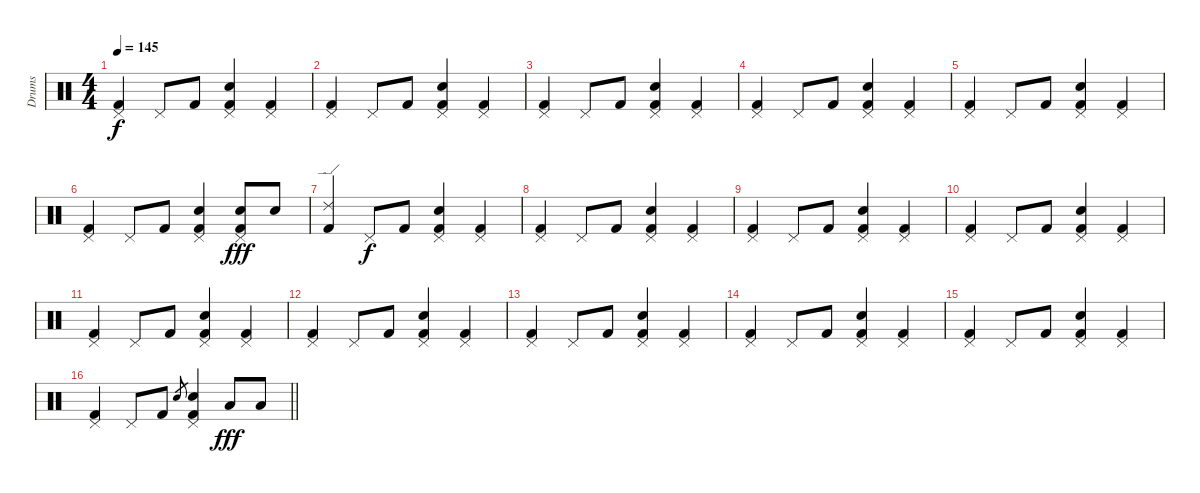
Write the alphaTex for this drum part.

\track ("Drums" "Drums") {instrument percussion}
\staff {score}
\articulation defaults
\ts (4 4)
\tempo 145
\clef neutral
\ks c
("Pedal Hi-Hat (hit)" "Kick (hit) 2").4{dy f} "Pedal Hi-Hat (hit)".8 "Kick (hit) 2".8 ("Pedal Hi-Hat (hit)" "Electric Snare (hit)" "Kick (hit) 2").4 ("Pedal Hi-Hat (hit)" "Kick (hit) 2").4 |
("Pedal Hi-Hat (hit)" "Kick (hit) 2").4 "Pedal Hi-Hat (hit)".8 "Kick (hit) 2".8 ("Pedal Hi-Hat (hit)" "Electric Snare (hit)" "Kick (hit) 2").4 ("Pedal Hi-Hat (hit)" "Kick (hit) 2").4 |
("Pedal Hi-Hat (hit)" "Kick (hit) 2").4 "Pedal Hi-Hat (hit)".8 "Kick (hit) 2".8 ("Pedal Hi-Hat (hit)" "Electric Snare (hit)" "Kick (hit) 2").4 ("Pedal Hi-Hat (hit)" "Kick (hit) 2").4 |
("Pedal Hi-Hat (hit)" "Kick (hit) 2").4 "Pedal Hi-Hat (hit)".8 "Kick (hit) 2".8 ("Pedal Hi-Hat (hit)" "Electric Snare (hit)" "Kick (hit) 2").4 ("Pedal Hi-Hat (hit)" "Kick (hit) 2").4 |
("Pedal Hi-Hat (hit)" "Kick (hit) 2").4 "Pedal Hi-Hat (hit)".8 "Kick (hit) 2".8 ("Pedal Hi-Hat (hit)" "Electric Snare (hit)" "Kick (hit) 2").4 ("Pedal Hi-Hat (hit)" "Kick (hit) 2").4 |
("Pedal Hi-Hat (hit)" "Kick (hit) 2").4 "Pedal Hi-Hat (hit)".8 "Kick (hit) 2".8 ("Pedal Hi-Hat (hit)" "Electric Snare (hit)" "Kick (hit) 2").4 ("Pedal Hi-Hat (hit)" "Electric Snare (hit)" "Kick (hit) 2").8{dy fff} "Electric Snare (hit)".8 |
("Ride (edge) 2" "Kick (hit) 2").4 "Pedal Hi-Hat (hit)".8{dy f} "Kick (hit) 2".8 ("Pedal Hi-Hat (hit)" "Electric Snare (hit)" "Kick (hit) 2").4 ("Pedal Hi-Hat (hit)" "Kick (hit) 2").4 |
("Pedal Hi-Hat (hit)" "Kick (hit) 2").4 "Pedal Hi-Hat (hit)".8 "Kick (hit) 2".8 ("Pedal Hi-Hat (hit)" "Electric Snare (hit)" "Kick (hit) 2").4 ("Pedal Hi-Hat (hit)" "Kick (hit) 2").4 |
("Pedal Hi-Hat (hit)" "Kick (hit) 2").4 "Pedal Hi-Hat (hit)".8 "Kick (hit) 2".8 ("Pedal Hi-Hat (hit)" "Electric Snare (hit)" "Kick (hit) 2").4 ("Pedal Hi-Hat (hit)" "Kick (hit) 2").4 |
("Pedal Hi-Hat (hit)" "Kick (hit) 2").4 "Pedal Hi-Hat (hit)".8 "Kick (hit) 2".8 ("Pedal Hi-Hat (hit)" "Electric Snare (hit)" "Kick (hit) 2").4 ("Pedal Hi-Hat (hit)" "Kick (hit) 2").4 |
("Pedal Hi-Hat (hit)" "Kick (hit) 2").4 "Pedal Hi-Hat (hit)".8 "Kick (hit) 2".8 ("Pedal Hi-Hat (hit)" "Electric Snare (hit)" "Kick (hit) 2").4 ("Pedal Hi-Hat (hit)" "Kick (hit) 2").4 |
("Pedal Hi-Hat (hit)" "Kick (hit) 2").4 "Pedal Hi-Hat (hit)".8 "Kick (hit) 2".8 ("Pedal Hi-Hat (hit)" "Electric Snare (hit)" "Kick (hit) 2").4 ("Pedal Hi-Hat (hit)" "Kick (hit) 2").4 |
("Pedal Hi-Hat (hit)" "Kick (hit) 2").4 "Pedal Hi-Hat (hit)".8 "Kick (hit) 2".8 ("Pedal Hi-Hat (hit)" "Electric Snare (hit)" "Kick (hit) 2").4 ("Pedal Hi-Hat (hit)" "Kick (hit) 2").4 |
("Pedal Hi-Hat (hit)" "Kick (hit) 2").4 "Pedal Hi-Hat (hit)".8 "Kick (hit) 2".8 ("Pedal Hi-Hat (hit)" "Electric Snare (hit)" "Kick (hit) 2").4 ("Pedal Hi-Hat (hit)" "Kick (hit) 2").4 |
("Pedal Hi-Hat (hit)" "Kick (hit) 2").4 "Pedal Hi-Hat (hit)".8 "Kick (hit) 2".8 ("Pedal Hi-Hat (hit)" "Electric Snare (hit)" "Kick (hit) 2").4 ("Pedal Hi-Hat (hit)" "Kick (hit) 2").4 |
\barLineRight lightlight
("Pedal Hi-Hat (hit)" "Kick (hit) 2").4 "Pedal Hi-Hat (hit)".8 "Kick (hit) 2".8 "Electric Snare (hit)".8{gr} ("Pedal Hi-Hat (hit)" "Electric Snare (hit)" "Kick (hit) 2").4 "Low Tom (hit)".8{dy fff} "Low Tom (hit)".8
